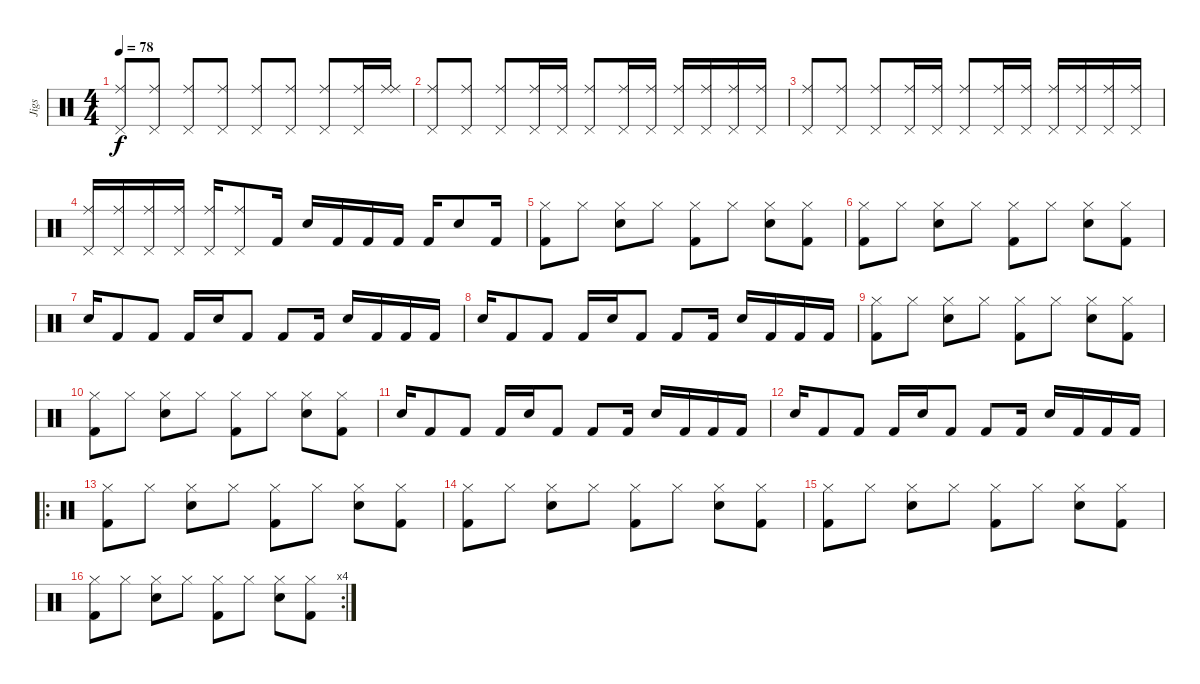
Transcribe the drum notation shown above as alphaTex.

\track ("Jigs" "Jigs") {instrument percussion}
\staff {score}
\articulation defaults
\ts (4 4)
\tempo 78
\clef neutral
\ks c
("Pedal Hi-Hat (hit)" "Ride (middle)").8{dy f} ("Pedal Hi-Hat (hit)" "Ride (middle)").8 ("Pedal Hi-Hat (hit)" "Ride (middle)").8 ("Pedal Hi-Hat (hit)" "Ride (middle)").8 ("Pedal Hi-Hat (hit)" "Ride (middle)").8 ("Pedal Hi-Hat (hit)" "Ride (middle)").8 ("Pedal Hi-Hat (hit)" "Ride (middle)").8 ("Pedal Hi-Hat (hit)" "Ride (middle)").16 ("Ride (middle)" "Ride (middle)").16 |
("Pedal Hi-Hat (hit)" "Ride (middle)").8 ("Pedal Hi-Hat (hit)" "Ride (middle)").8 ("Pedal Hi-Hat (hit)" "Ride (middle)").8 ("Pedal Hi-Hat (hit)" "Ride (middle)").16 ("Pedal Hi-Hat (hit)" "Ride (middle)").16 ("Pedal Hi-Hat (hit)" "Ride (middle)").8 ("Pedal Hi-Hat (hit)" "Ride (middle)").16 ("Pedal Hi-Hat (hit)" "Ride (middle)").16 ("Pedal Hi-Hat (hit)" "Ride (middle)").16 ("Pedal Hi-Hat (hit)" "Ride (middle)").16 ("Pedal Hi-Hat (hit)" "Ride (middle)").16 ("Pedal Hi-Hat (hit)" "Ride (middle)").16 |
("Pedal Hi-Hat (hit)" "Ride (middle)").8 ("Pedal Hi-Hat (hit)" "Ride (middle)").8 ("Pedal Hi-Hat (hit)" "Ride (middle)").8 ("Pedal Hi-Hat (hit)" "Ride (middle)").16 ("Pedal Hi-Hat (hit)" "Ride (middle)").16 ("Pedal Hi-Hat (hit)" "Ride (middle)").8 ("Pedal Hi-Hat (hit)" "Ride (middle)").16 ("Pedal Hi-Hat (hit)" "Ride (middle)").16 ("Pedal Hi-Hat (hit)" "Ride (middle)").16 ("Pedal Hi-Hat (hit)" "Ride (middle)").16 ("Pedal Hi-Hat (hit)" "Ride (middle)").16 ("Pedal Hi-Hat (hit)" "Ride (middle)").16 |
("Pedal Hi-Hat (hit)" "Ride (middle)").16 ("Pedal Hi-Hat (hit)" "Ride (middle)").16 ("Pedal Hi-Hat (hit)" "Ride (middle)").16 ("Pedal Hi-Hat (hit)" "Ride (middle)").16 ("Pedal Hi-Hat (hit)" "Ride (middle)").16 ("Pedal Hi-Hat (hit)" "Ride (middle)").8 "Kick (hit) 2".16 "Snare (hit) 2".16 "Kick (hit) 2".16 "Kick (hit) 2".16 "Kick (hit) 2".16 "Kick (hit) 2".16 "Snare (hit) 2".8 "Kick (hit) 2".16 |
("Kick (hit) 2" "Hi-Hat (closed)").8 "Hi-Hat (closed)".8 ("Snare (hit) 2" "Hi-Hat (closed)").8 "Hi-Hat (closed)".8 ("Kick (hit) 2" "Hi-Hat (closed)").8 "Hi-Hat (closed)".8 ("Snare (hit) 2" "Hi-Hat (closed)").8 ("Kick (hit) 2" "Hi-Hat (closed)").8 |
("Kick (hit) 2" "Hi-Hat (closed)").8 "Hi-Hat (closed)".8 ("Snare (hit) 2" "Hi-Hat (closed)").8 "Hi-Hat (closed)".8 ("Kick (hit) 2" "Hi-Hat (closed)").8 "Hi-Hat (closed)".8 ("Snare (hit) 2" "Hi-Hat (closed)").8 ("Kick (hit) 2" "Hi-Hat (closed)").8 |
"Snare (hit) 2".16 "Kick (hit) 2".8 "Kick (hit) 2".8 "Kick (hit) 2".16 "Snare (hit) 2".16 "Kick (hit) 2".8 "Kick (hit) 2".8 "Kick (hit) 2".16 "Snare (hit) 2".16 "Kick (hit) 2".16 "Kick (hit) 2".16 "Kick (hit) 2".16 |
"Snare (hit) 2".16 "Kick (hit) 2".8 "Kick (hit) 2".8 "Kick (hit) 2".16 "Snare (hit) 2".16 "Kick (hit) 2".8 "Kick (hit) 2".8 "Kick (hit) 2".16 "Snare (hit) 2".16 "Kick (hit) 2".16 "Kick (hit) 2".16 "Kick (hit) 2".16 |
("Kick (hit) 2" "Hi-Hat (closed)").8 "Hi-Hat (closed)".8 ("Snare (hit) 2" "Hi-Hat (closed)").8 "Hi-Hat (closed)".8 ("Kick (hit) 2" "Hi-Hat (closed)").8 "Hi-Hat (closed)".8 ("Snare (hit) 2" "Hi-Hat (closed)").8 ("Kick (hit) 2" "Hi-Hat (closed)").8 |
("Kick (hit) 2" "Hi-Hat (closed)").8 "Hi-Hat (closed)".8 ("Snare (hit) 2" "Hi-Hat (closed)").8 "Hi-Hat (closed)".8 ("Kick (hit) 2" "Hi-Hat (closed)").8 "Hi-Hat (closed)".8 ("Snare (hit) 2" "Hi-Hat (closed)").8 ("Kick (hit) 2" "Hi-Hat (closed)").8 |
"Snare (hit) 2".16 "Kick (hit) 2".8 "Kick (hit) 2".8 "Kick (hit) 2".16 "Snare (hit) 2".16 "Kick (hit) 2".8 "Kick (hit) 2".8 "Kick (hit) 2".16 "Snare (hit) 2".16 "Kick (hit) 2".16 "Kick (hit) 2".16 "Kick (hit) 2".16 |
"Snare (hit) 2".16 "Kick (hit) 2".8 "Kick (hit) 2".8 "Kick (hit) 2".16 "Snare (hit) 2".16 "Kick (hit) 2".8 "Kick (hit) 2".8 "Kick (hit) 2".16 "Snare (hit) 2".16 "Kick (hit) 2".16 "Kick (hit) 2".16 "Kick (hit) 2".16 |
\ro
("Kick (hit) 2" "Hi-Hat (closed)").8 "Hi-Hat (closed)".8 ("Snare (hit) 2" "Hi-Hat (closed)").8 "Hi-Hat (closed)".8 ("Kick (hit) 2" "Hi-Hat (closed)").8 "Hi-Hat (closed)".8 ("Snare (hit) 2" "Hi-Hat (closed)").8 ("Kick (hit) 2" "Hi-Hat (closed)").8 |
("Kick (hit) 2" "Hi-Hat (closed)").8 "Hi-Hat (closed)".8 ("Snare (hit) 2" "Hi-Hat (closed)").8 "Hi-Hat (closed)".8 ("Kick (hit) 2" "Hi-Hat (closed)").8 "Hi-Hat (closed)".8 ("Snare (hit) 2" "Hi-Hat (closed)").8 ("Kick (hit) 2" "Hi-Hat (closed)").8 |
("Kick (hit) 2" "Hi-Hat (closed)").8 "Hi-Hat (closed)".8 ("Snare (hit) 2" "Hi-Hat (closed)").8 "Hi-Hat (closed)".8 ("Kick (hit) 2" "Hi-Hat (closed)").8 "Hi-Hat (closed)".8 ("Snare (hit) 2" "Hi-Hat (closed)").8 ("Kick (hit) 2" "Hi-Hat (closed)").8 |
\rc 4
("Kick (hit) 2" "Hi-Hat (closed)").8 "Hi-Hat (closed)".8 ("Snare (hit) 2" "Hi-Hat (closed)").8 "Hi-Hat (closed)".8 ("Kick (hit) 2" "Hi-Hat (closed)").8 "Hi-Hat (closed)".8 ("Snare (hit) 2" "Hi-Hat (closed)").8 ("Kick (hit) 2" "Hi-Hat (closed)").8
